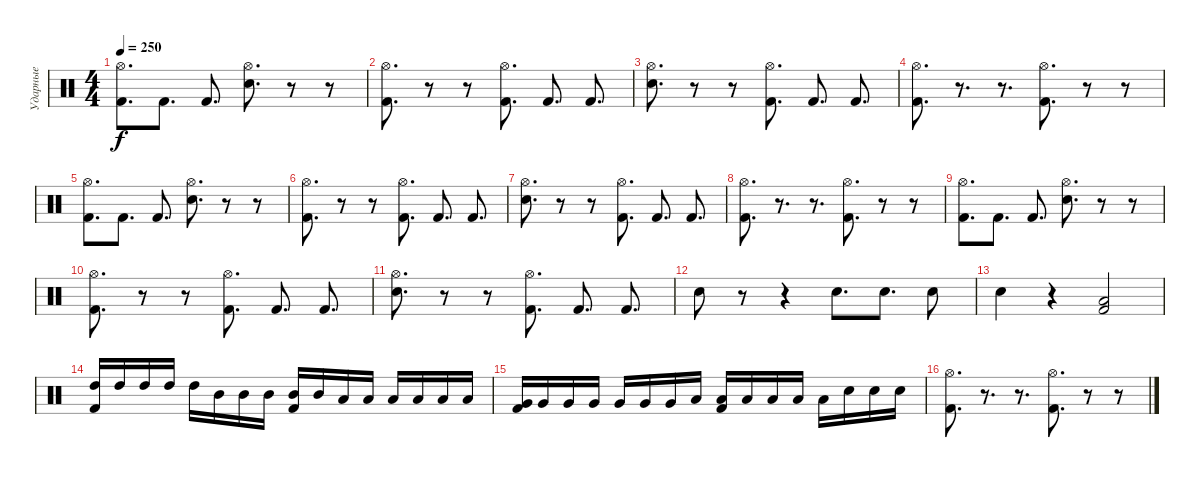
\track ("Ударные" "Ударные") {instrument percussion}
\staff {score}
\articulation defaults
\ts (4 4)
\tempo 250
\clef neutral
\ks c
("Hi-Hat (open)" "Kick (hit) 2").8{d dy f} "Kick (hit) 2".8{d} "Kick (hit) 2".8{d} ("Hi-Hat (open)" "Electric Snare (hit)").8{d} r.8 r.8 |
("Hi-Hat (open)" "Kick (hit) 2").8{d} r.8 r.8 ("Hi-Hat (open)" "Kick (hit) 2").8{d} "Kick (hit) 2".8{d} "Kick (hit) 2".8{d} |
("Hi-Hat (open)" "Electric Snare (hit)").8{d} r.8 r.8 ("Hi-Hat (open)" "Kick (hit) 2").8{d} "Kick (hit) 2".8{d} "Kick (hit) 2".8{d} |
("Hi-Hat (open)" "Kick (hit) 2").8{d} r.8{d} r.8{d} ("Hi-Hat (open)" "Kick (hit) 2").8{d} r.8 r.8 |
("Hi-Hat (open)" "Kick (hit) 2").8{d} "Kick (hit) 2".8{d} "Kick (hit) 2".8{d} ("Hi-Hat (open)" "Electric Snare (hit)").8{d} r.8 r.8 |
("Hi-Hat (open)" "Kick (hit) 2").8{d} r.8 r.8 ("Hi-Hat (open)" "Kick (hit) 2").8{d} "Kick (hit) 2".8{d} "Kick (hit) 2".8{d} |
("Hi-Hat (open)" "Electric Snare (hit)").8{d} r.8 r.8 ("Hi-Hat (open)" "Kick (hit) 2").8{d} "Kick (hit) 2".8{d} "Kick (hit) 2".8{d} |
("Hi-Hat (open)" "Kick (hit) 2").8{d} r.8{d} r.8{d} ("Hi-Hat (open)" "Kick (hit) 2").8{d} r.8 r.8 |
("Hi-Hat (open)" "Kick (hit) 2").8{d} "Kick (hit) 2".8{d} "Kick (hit) 2".8{d} ("Hi-Hat (open)" "Electric Snare (hit)").8{d} r.8 r.8 |
("Hi-Hat (open)" "Kick (hit) 2").8{d} r.8 r.8 ("Hi-Hat (open)" "Kick (hit) 2").8{d} "Kick (hit) 2".8{d} "Kick (hit) 2".8{d} |
("Hi-Hat (open)" "Electric Snare (hit)").8{d} r.8 r.8 ("Hi-Hat (open)" "Kick (hit) 2").8{d} "Kick (hit) 2".8{d} "Kick (hit) 2".8{d} |
"Electric Snare (hit)".8 r.8 r.4 "Electric Snare (hit)".8{d} "Electric Snare (hit)".8{d} "Electric Snare (hit)".8 |
"Electric Snare (hit)".4 r.4 ("Low Floor Tom (hit)" "Kick (hit) 2").2 |
("High Tom (hit)" "Kick (hit) 2").16 "High Tom (hit)".16 "High Tom (hit)".16 "High Tom (hit)".16 "High Tom (hit)".16 "Mid Tom (hit)".16 "Mid Tom (hit)".16 "Mid Tom (hit)".16 ("Mid Tom (hit)" "Kick (hit) 2").16 "Mid Tom (hit)".16 "Low Tom (hit)".16 "Low Tom (hit)".16 "Low Tom (hit)".16 "Low Tom (hit)".16 "Low Tom (hit)".16 "Low Tom (hit)".16 |
("Very Low Tom (hit)" "Kick (hit) 2").16 "Very Low Tom (hit)".16 "Very Low Tom (hit)".16 "Very Low Tom (hit)".16 "Very Low Tom (hit)".16 "Very Low Tom (hit)".16 "Very Low Tom (hit)".16 "Low Floor Tom (hit)".16 ("Low Floor Tom (hit)" "Kick (hit) 2").16 "Low Floor Tom (hit)".16 "Low Floor Tom (hit)".16 "Low Floor Tom (hit)".16 "Low Floor Tom (hit)".16 "Snare (hit) 2".16 "Snare (hit) 2".16 "Snare (hit) 2".16 |
("Hi-Hat (open)" "Kick (hit) 2").8{d} r.8{d} r.8{d} ("Hi-Hat (open)" "Kick (hit) 2").8{d} r.8 r.8
